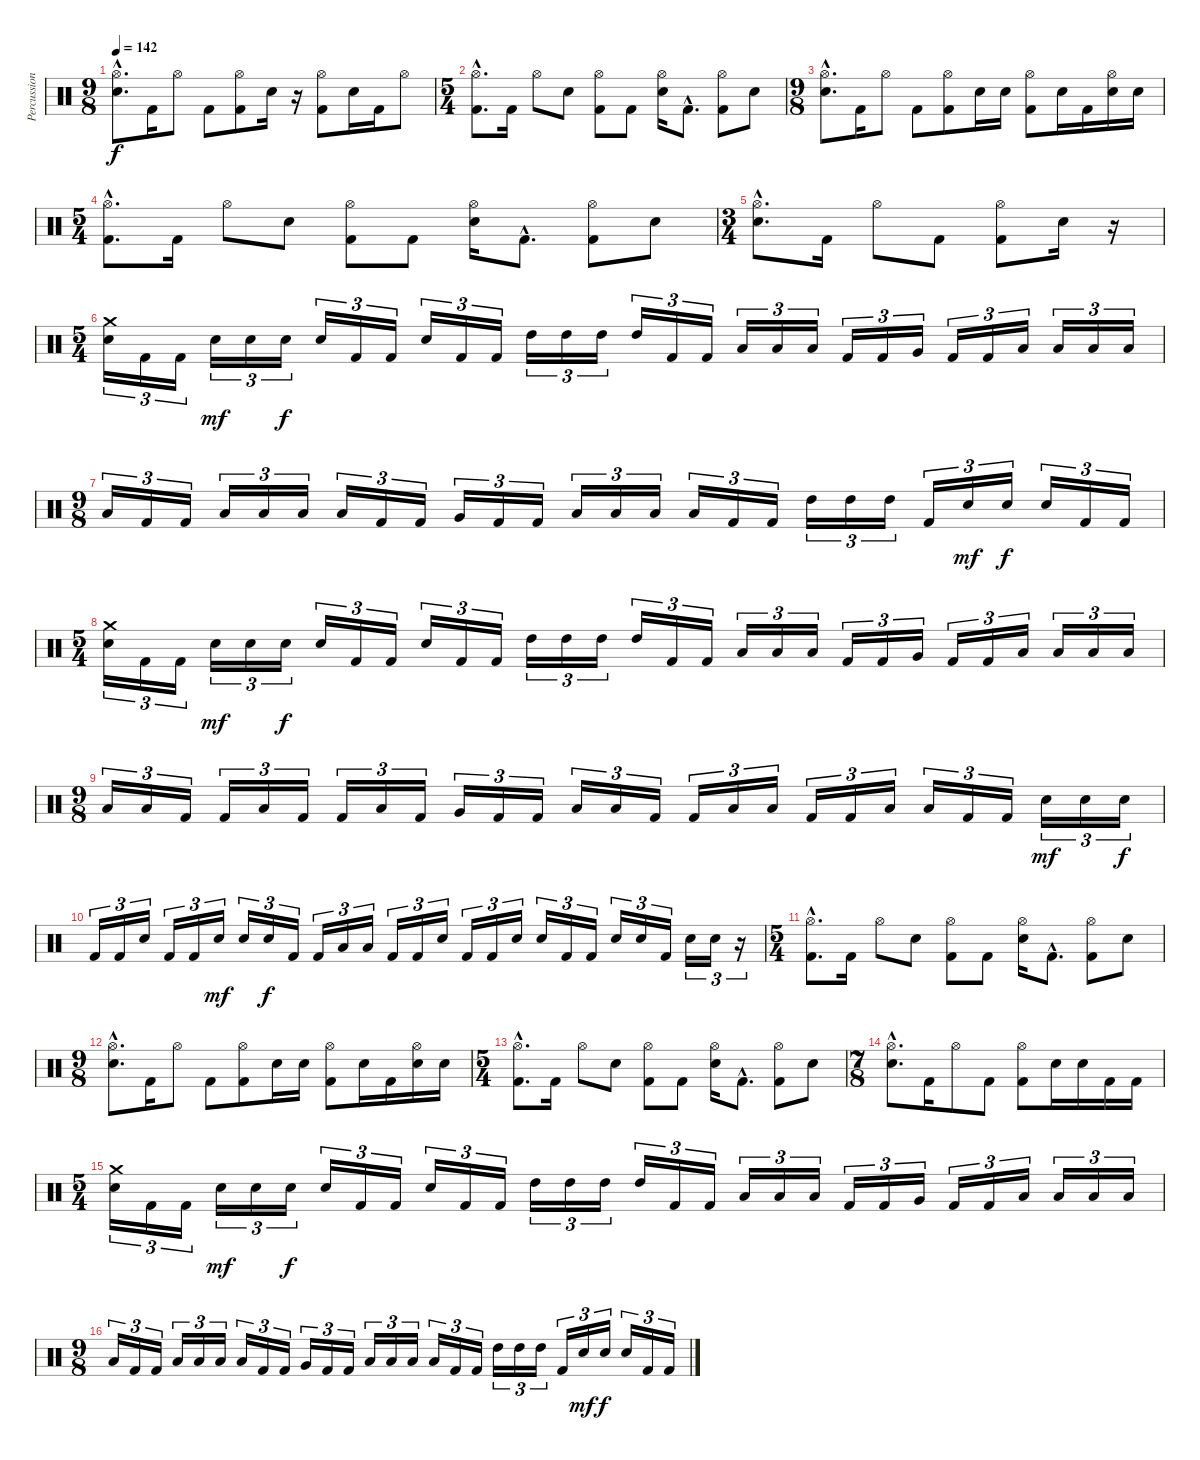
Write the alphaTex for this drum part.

\track ("Percussion" "Percussion") {instrument percussion}
\staff {score}
\articulation defaults
\ts (9 8)
\tempo 142
\clef neutral
\ks c
("Hi-Hat (open)"{hac} "Electric Snare (hit)"{hac}).8{d dy f} "Kick (hit) 2".16 "Hi-Hat (open)".8 "Kick (hit) 2".8 ("Hi-Hat (open)" "Kick (hit) 2").8 "Electric Snare (hit)".16 r.16 ("Hi-Hat (open)" "Kick (hit) 2").8 "Electric Snare (hit)".16 "Kick (hit) 2".16 "Hi-Hat (open)".8 |
\ts (5 4)
("Hi-Hat (open)"{hac} "Kick (hit) 2"{hac}).8{d} "Kick (hit) 2".16 "Hi-Hat (open)".8 "Electric Snare (hit)".8 ("Hi-Hat (open)" "Kick (hit) 2").8 "Kick (hit) 2".8 ("Hi-Hat (open)" "Electric Snare (hit)").16 "Kick (hit) 2"{hac}.8{d} ("Hi-Hat (open)" "Kick (hit) 2").8 "Electric Snare (hit)".8 |
\ts (9 8)
("Hi-Hat (open)"{hac} "Electric Snare (hit)"{hac}).8{d} "Kick (hit) 2".16 "Hi-Hat (open)".8 "Kick (hit) 2".8 ("Hi-Hat (open)" "Kick (hit) 2").8 "Electric Snare (hit)".16 "Electric Snare (hit)".16 ("Hi-Hat (open)" "Kick (hit) 2").8 "Electric Snare (hit)".16 "Kick (hit) 2".16 ("Hi-Hat (open)" "Electric Snare (hit)").16 "Electric Snare (hit)".16 |
\ts (5 4)
("Hi-Hat (open)"{hac} "Kick (hit) 2"{hac}).8{d} "Kick (hit) 2".16 "Hi-Hat (open)".8 "Electric Snare (hit)".8 ("Hi-Hat (open)" "Kick (hit) 2").8 "Kick (hit) 2".8 ("Hi-Hat (open)" "Electric Snare (hit)").16 "Kick (hit) 2"{hac}.8{d} ("Hi-Hat (open)" "Kick (hit) 2").8 "Electric Snare (hit)".8 |
\ts (3 4)
("Hi-Hat (open)"{hac} "Electric Snare (hit)"{hac}).8{d} "Kick (hit) 2".16 "Hi-Hat (open)".8 "Kick (hit) 2".8 ("Hi-Hat (open)" "Kick (hit) 2").8 "Electric Snare (hit)".16 r.16 |
\ts (5 4)
("Crash medium (hit)" "Electric Snare (hit)").16{tu (3 2)} "Kick (hit) 2".16{tu (3 2)} "Kick (hit) 2".16{tu (3 2)} "Electric Snare (hit)".16{tu (3 2) dy mf} "Electric Snare (hit)".16{tu (3 2)} "Electric Snare (hit)".16{tu (3 2) dy f} "Electric Snare (hit)".16{tu (3 2)} "Kick (hit) 2".16{tu (3 2)} "Kick (hit) 2".16{tu (3 2)} "Electric Snare (hit)".16{tu (3 2)} "Kick (hit) 2".16{tu (3 2)} "Kick (hit) 2".16{tu (3 2)} "High Tom (hit)".16{tu (3 2)} "High Tom (hit)".16{tu (3 2)} "High Tom (hit)".16{tu (3 2)} "High Tom (hit)".16{tu (3 2)} "Kick (hit) 2".16{tu (3 2)} "Kick (hit) 2".16{tu (3 2)} "Low Tom (hit)".16{tu (3 2)} "Low Tom (hit)".16{tu (3 2)} "Low Tom (hit)".16{tu (3 2)} "Kick (hit) 2".16{tu (3 2)} "Kick (hit) 2".16{tu (3 2)} "Very Low Tom (hit)".16{tu (3 2)} "Kick (hit) 2".16{tu (3 2)} "Kick (hit) 2".16{tu (3 2)} "Low Floor Tom (hit)".16{tu (3 2)} "Low Floor Tom (hit)".16{tu (3 2)} "Low Floor Tom (hit)".16{tu (3 2)} "Low Floor Tom (hit)".16{tu (3 2)} |
\ts (9 8)
"Low Floor Tom (hit)".16{tu (3 2)} "Kick (hit) 2".16{tu (3 2)} "Kick (hit) 2".16{tu (3 2)} "Low Tom (hit)".16{tu (3 2)} "Low Tom (hit)".16{tu (3 2)} "Low Tom (hit)".16{tu (3 2)} "Low Tom (hit)".16{tu (3 2)} "Kick (hit) 2".16{tu (3 2)} "Kick (hit) 2".16{tu (3 2)} "Very Low Tom (hit)".16{tu (3 2)} "Kick (hit) 2".16{tu (3 2)} "Kick (hit) 2".16{tu (3 2)} "Low Floor Tom (hit)".16{tu (3 2)} "Low Floor Tom (hit)".16{tu (3 2)} "Low Floor Tom (hit)".16{tu (3 2)} "Low Floor Tom (hit)".16{tu (3 2)} "Kick (hit) 2".16{tu (3 2)} "Kick (hit) 2".16{tu (3 2)} "High Tom (hit)".16{tu (3 2)} "High Tom (hit)".16{tu (3 2)} "High Tom (hit)".16{tu (3 2)} "Kick (hit) 2".16{tu (3 2)} "Electric Snare (hit)".16{tu (3 2) dy mf} "Electric Snare (hit)".16{tu (3 2) dy f} "Electric Snare (hit)".16{tu (3 2)} "Kick (hit) 2".16{tu (3 2)} "Kick (hit) 2".16{tu (3 2)} |
\ts (5 4)
("Crash medium (hit)" "Electric Snare (hit)").16{tu (3 2)} "Kick (hit) 2".16{tu (3 2)} "Kick (hit) 2".16{tu (3 2)} "Electric Snare (hit)".16{tu (3 2) dy mf} "Electric Snare (hit)".16{tu (3 2)} "Electric Snare (hit)".16{tu (3 2) dy f} "Electric Snare (hit)".16{tu (3 2)} "Kick (hit) 2".16{tu (3 2)} "Kick (hit) 2".16{tu (3 2)} "Electric Snare (hit)".16{tu (3 2)} "Kick (hit) 2".16{tu (3 2)} "Kick (hit) 2".16{tu (3 2)} "High Tom (hit)".16{tu (3 2)} "High Tom (hit)".16{tu (3 2)} "High Tom (hit)".16{tu (3 2)} "High Tom (hit)".16{tu (3 2)} "Kick (hit) 2".16{tu (3 2)} "Kick (hit) 2".16{tu (3 2)} "Low Tom (hit)".16{tu (3 2)} "Low Tom (hit)".16{tu (3 2)} "Low Tom (hit)".16{tu (3 2)} "Kick (hit) 2".16{tu (3 2)} "Kick (hit) 2".16{tu (3 2)} "Very Low Tom (hit)".16{tu (3 2)} "Kick (hit) 2".16{tu (3 2)} "Kick (hit) 2".16{tu (3 2)} "Low Floor Tom (hit)".16{tu (3 2)} "Low Floor Tom (hit)".16{tu (3 2)} "Low Floor Tom (hit)".16{tu (3 2)} "Low Floor Tom (hit)".16{tu (3 2)} |
\ts (9 8)
"Low Tom (hit)".16{tu (3 2)} "Low Tom (hit)".16{tu (3 2)} "Kick (hit) 2".16{tu (3 2)} "Kick (hit) 2".16{tu (3 2)} "Low Tom (hit)".16{tu (3 2)} "Kick (hit) 2".16{tu (3 2)} "Kick (hit) 2".16{tu (3 2)} "Low Tom (hit)".16{tu (3 2)} "Kick (hit) 2".16{tu (3 2)} "Very Low Tom (hit)".16{tu (3 2)} "Kick (hit) 2".16{tu (3 2)} "Kick (hit) 2".16{tu (3 2)} "Low Floor Tom (hit)".16{tu (3 2)} "Low Floor Tom (hit)".16{tu (3 2)} "Kick (hit) 2".16{tu (3 2)} "Kick (hit) 2".16{tu (3 2)} "Low Floor Tom (hit)".16{tu (3 2)} "Low Floor Tom (hit)".16{tu (3 2)} "Kick (hit) 2".16{tu (3 2)} "Kick (hit) 2".16{tu (3 2)} "Low Floor Tom (hit)".16{tu (3 2)} "Low Floor Tom (hit)".16{tu (3 2)} "Kick (hit) 2".16{tu (3 2)} "Kick (hit) 2".16{tu (3 2)} "Electric Snare (hit)".16{tu (3 2) dy mf} "Electric Snare (hit)".16{tu (3 2)} "Electric Snare (hit)".16{tu (3 2) dy f} |
"Kick (hit) 2".16{tu (3 2)} "Kick (hit) 2".16{tu (3 2)} "Electric Snare (hit)".16{tu (3 2)} "Kick (hit) 2".16{tu (3 2)} "Kick (hit) 2".16{tu (3 2)} "Electric Snare (hit)".16{tu (3 2) dy mf} "Electric Snare (hit)".16{tu (3 2)} "Electric Snare (hit)".16{tu (3 2) dy f} "Kick (hit) 2".16{tu (3 2)} "Kick (hit) 2".16{tu (3 2)} "Low Floor Tom (hit)".16{tu (3 2)} "Low Floor Tom (hit)".16{tu (3 2)} "Kick (hit) 2".16{tu (3 2)} "Kick (hit) 2".16{tu (3 2)} "Electric Snare (hit)".16{tu (3 2)} "Kick (hit) 2".16{tu (3 2)} "Kick (hit) 2".16{tu (3 2)} "Electric Snare (hit)".16{tu (3 2)} "Electric Snare (hit)".16{tu (3 2)} "Kick (hit) 2".16{tu (3 2)} "Kick (hit) 2".16{tu (3 2)} "Electric Snare (hit)".16{tu (3 2)} "Electric Snare (hit)".16{tu (3 2)} "Kick (hit) 2".16{tu (3 2)} "Electric Snare (hit)".16{tu (3 2)} "Electric Snare (hit)".16{tu (3 2)} r.16{tu (3 2)} |
\ts (5 4)
("Hi-Hat (open)"{hac} "Kick (hit) 2"{hac}).8{d} "Kick (hit) 2".16 "Hi-Hat (open)".8 "Electric Snare (hit)".8 ("Hi-Hat (open)" "Kick (hit) 2").8 "Kick (hit) 2".8 ("Hi-Hat (open)" "Electric Snare (hit)").16 "Kick (hit) 2"{hac}.8{d} ("Hi-Hat (open)" "Kick (hit) 2").8 "Electric Snare (hit)".8 |
\ts (9 8)
("Hi-Hat (open)"{hac} "Electric Snare (hit)"{hac}).8{d} "Kick (hit) 2".16 "Hi-Hat (open)".8 "Kick (hit) 2".8 ("Hi-Hat (open)" "Kick (hit) 2").8 "Electric Snare (hit)".16 "Electric Snare (hit)".16 ("Hi-Hat (open)" "Kick (hit) 2").8 "Electric Snare (hit)".16 "Kick (hit) 2".16 ("Hi-Hat (open)" "Electric Snare (hit)").16 "Electric Snare (hit)".16 |
\ts (5 4)
("Hi-Hat (open)"{hac} "Kick (hit) 2"{hac}).8{d} "Kick (hit) 2".16 "Hi-Hat (open)".8 "Electric Snare (hit)".8 ("Hi-Hat (open)" "Kick (hit) 2").8 "Kick (hit) 2".8 ("Hi-Hat (open)" "Electric Snare (hit)").16 "Kick (hit) 2"{hac}.8{d} ("Hi-Hat (open)" "Kick (hit) 2").8 "Electric Snare (hit)".8 |
\ts (7 8)
("Hi-Hat (open)"{hac} "Electric Snare (hit)"{hac}).8{d} "Kick (hit) 2".16 "Hi-Hat (open)".8 "Kick (hit) 2".8 ("Hi-Hat (open)" "Kick (hit) 2").8 "Electric Snare (hit)".16 "Electric Snare (hit)".16 "Kick (hit) 2".16 "Kick (hit) 2".16 |
\ts (5 4)
("Crash medium (hit)" "Electric Snare (hit)").16{tu (3 2)} "Kick (hit) 2".16{tu (3 2)} "Kick (hit) 2".16{tu (3 2)} "Electric Snare (hit)".16{tu (3 2) dy mf} "Electric Snare (hit)".16{tu (3 2)} "Electric Snare (hit)".16{tu (3 2) dy f} "Electric Snare (hit)".16{tu (3 2)} "Kick (hit) 2".16{tu (3 2)} "Kick (hit) 2".16{tu (3 2)} "Electric Snare (hit)".16{tu (3 2)} "Kick (hit) 2".16{tu (3 2)} "Kick (hit) 2".16{tu (3 2)} "High Tom (hit)".16{tu (3 2)} "High Tom (hit)".16{tu (3 2)} "High Tom (hit)".16{tu (3 2)} "High Tom (hit)".16{tu (3 2)} "Kick (hit) 2".16{tu (3 2)} "Kick (hit) 2".16{tu (3 2)} "Low Tom (hit)".16{tu (3 2)} "Low Tom (hit)".16{tu (3 2)} "Low Tom (hit)".16{tu (3 2)} "Kick (hit) 2".16{tu (3 2)} "Kick (hit) 2".16{tu (3 2)} "Very Low Tom (hit)".16{tu (3 2)} "Kick (hit) 2".16{tu (3 2)} "Kick (hit) 2".16{tu (3 2)} "Low Floor Tom (hit)".16{tu (3 2)} "Low Floor Tom (hit)".16{tu (3 2)} "Low Floor Tom (hit)".16{tu (3 2)} "Low Floor Tom (hit)".16{tu (3 2)} |
\ts (9 8)
"Low Floor Tom (hit)".16{tu (3 2)} "Kick (hit) 2".16{tu (3 2)} "Kick (hit) 2".16{tu (3 2)} "Low Tom (hit)".16{tu (3 2)} "Low Tom (hit)".16{tu (3 2)} "Low Tom (hit)".16{tu (3 2)} "Low Tom (hit)".16{tu (3 2)} "Kick (hit) 2".16{tu (3 2)} "Kick (hit) 2".16{tu (3 2)} "Very Low Tom (hit)".16{tu (3 2)} "Kick (hit) 2".16{tu (3 2)} "Kick (hit) 2".16{tu (3 2)} "Low Floor Tom (hit)".16{tu (3 2)} "Low Floor Tom (hit)".16{tu (3 2)} "Low Floor Tom (hit)".16{tu (3 2)} "Low Floor Tom (hit)".16{tu (3 2)} "Kick (hit) 2".16{tu (3 2)} "Kick (hit) 2".16{tu (3 2)} "High Tom (hit)".16{tu (3 2)} "High Tom (hit)".16{tu (3 2)} "High Tom (hit)".16{tu (3 2)} "Kick (hit) 2".16{tu (3 2)} "Electric Snare (hit)".16{tu (3 2) dy mf} "Electric Snare (hit)".16{tu (3 2) dy f} "Electric Snare (hit)".16{tu (3 2)} "Kick (hit) 2".16{tu (3 2)} "Kick (hit) 2".16{tu (3 2)}
